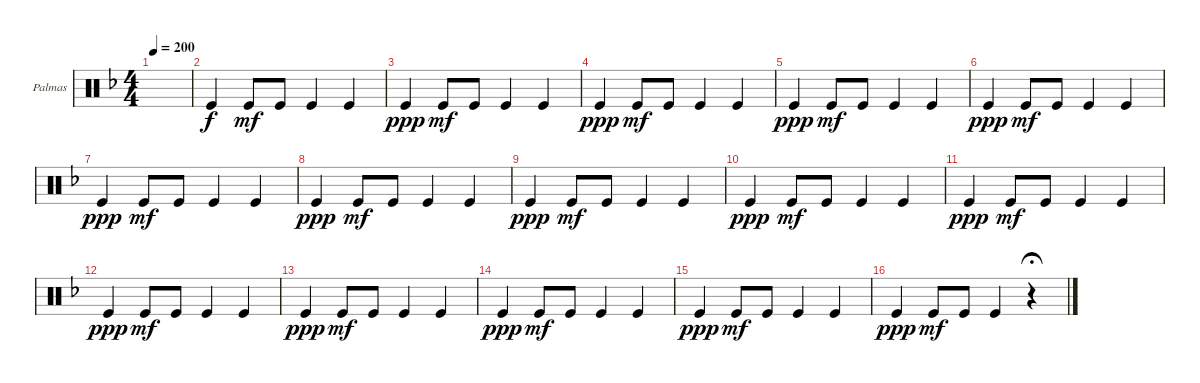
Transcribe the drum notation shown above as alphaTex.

\defaultSystemsLayout 4
\bracketExtendMode groupsimilarinstruments
\firstSystemTrackNameOrientation horizontal
\otherSystemsTrackNameOrientation horizontal
\track ("Palmas" "Palmas") {instrument percussion}
\staff {score}
\articulation defaults
\ts (4 4)
\tempo 200
\clef neutral
\ks f
|
"Kick (hit)".4 "Kick (hit)".8{dy mf} "Kick (hit)".8 "Kick (hit)".4 "Kick (hit)".4 |
"Kick (hit)".4{dy ppp} "Kick (hit)".8{dy mf} "Kick (hit)".8 "Kick (hit)".4 "Kick (hit)".4 |
"Kick (hit)".4{dy ppp} "Kick (hit)".8{dy mf} "Kick (hit)".8 "Kick (hit)".4 "Kick (hit)".4 |
"Kick (hit)".4{dy ppp} "Kick (hit)".8{dy mf} "Kick (hit)".8 "Kick (hit)".4 "Kick (hit)".4 |
"Kick (hit)".4{dy ppp} "Kick (hit)".8{dy mf} "Kick (hit)".8 "Kick (hit)".4 "Kick (hit)".4 |
"Kick (hit)".4{dy ppp} "Kick (hit)".8{dy mf} "Kick (hit)".8 "Kick (hit)".4 "Kick (hit)".4 |
"Kick (hit)".4{dy ppp} "Kick (hit)".8{dy mf} "Kick (hit)".8 "Kick (hit)".4 "Kick (hit)".4 |
"Kick (hit)".4{dy ppp} "Kick (hit)".8{dy mf} "Kick (hit)".8 "Kick (hit)".4 "Kick (hit)".4 |
"Kick (hit)".4{dy ppp} "Kick (hit)".8{dy mf} "Kick (hit)".8 "Kick (hit)".4 "Kick (hit)".4 |
"Kick (hit)".4{dy ppp} "Kick (hit)".8{dy mf} "Kick (hit)".8 "Kick (hit)".4 "Kick (hit)".4 |
"Kick (hit)".4{dy ppp} "Kick (hit)".8{dy mf} "Kick (hit)".8 "Kick (hit)".4 "Kick (hit)".4 |
"Kick (hit)".4{dy ppp} "Kick (hit)".8{dy mf} "Kick (hit)".8 "Kick (hit)".4 "Kick (hit)".4 |
"Kick (hit)".4{dy ppp} "Kick (hit)".8{dy mf} "Kick (hit)".8 "Kick (hit)".4 "Kick (hit)".4 |
"Kick (hit)".4{dy ppp} "Kick (hit)".8{dy mf} "Kick (hit)".8 "Kick (hit)".4 "Kick (hit)".4 |
"Kick (hit)".4{dy ppp} "Kick (hit)".8{dy mf} "Kick (hit)".8 "Kick (hit)".4 r.4{fermata (medium 1)}
